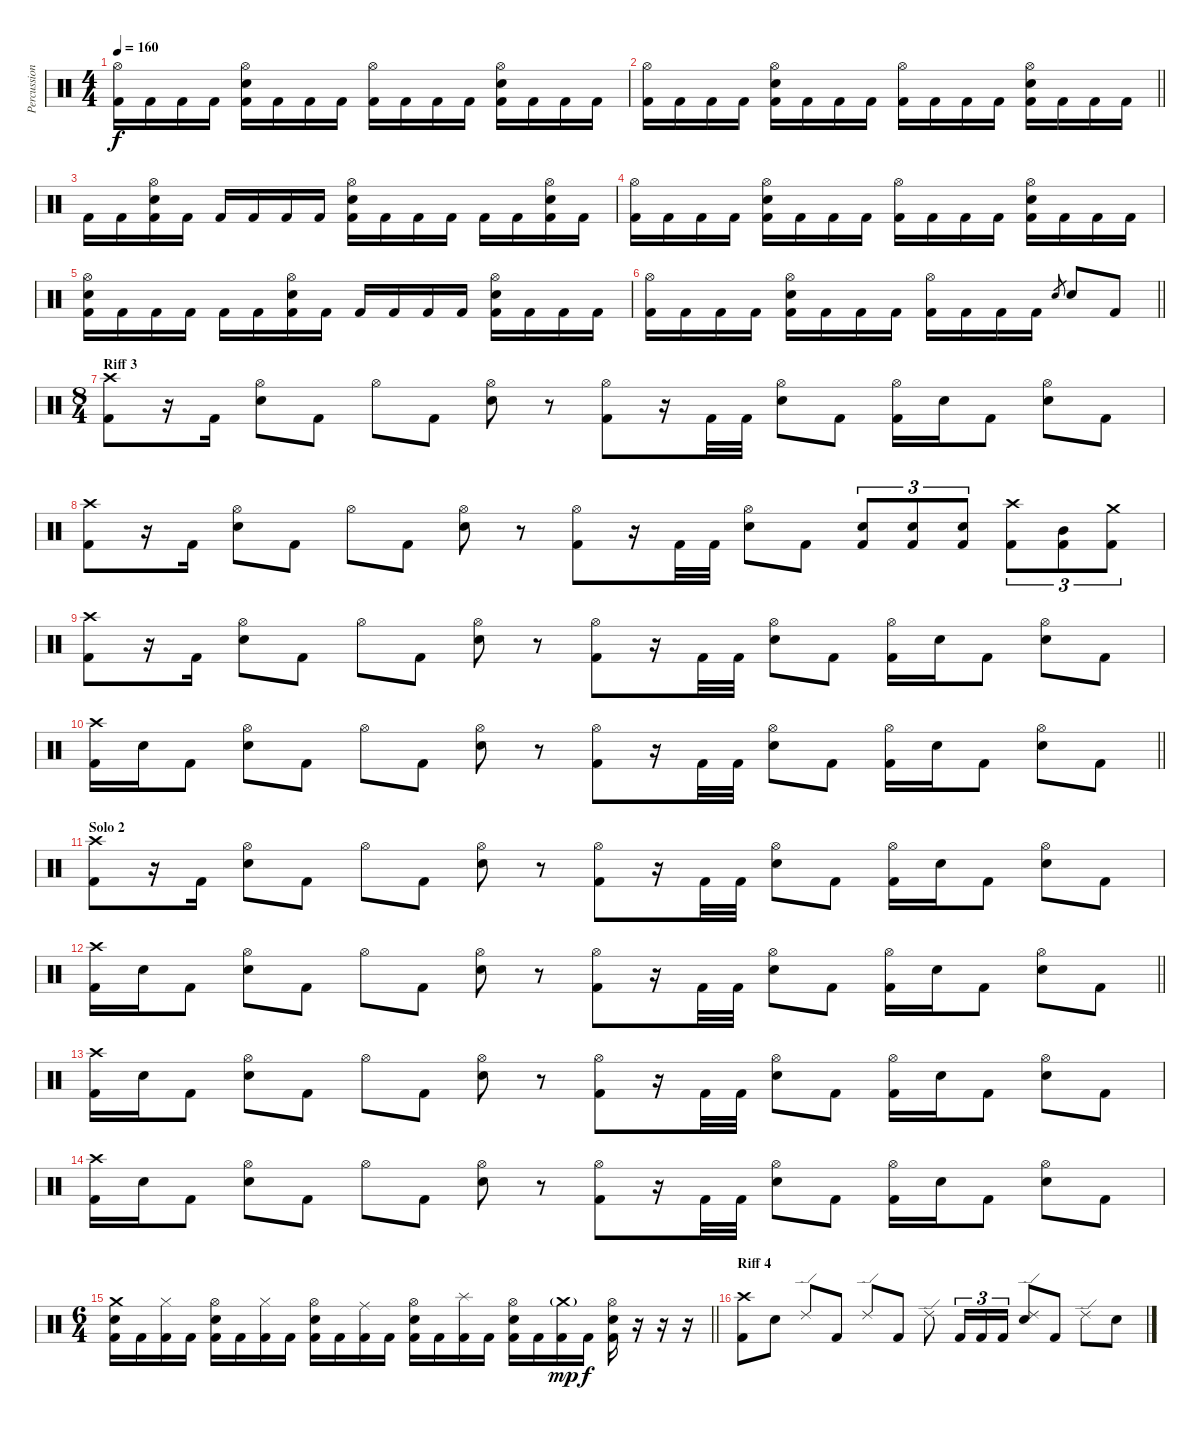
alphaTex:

\track ("Percussion" "Percussion") {instrument percussion}
\staff {score}
\articulation defaults
\ts (4 4)
\tempo 160
\clef neutral
\ks c
("Hi-Hat (open)" "Kick (hit) 2").16{dy f} "Kick (hit) 2".16 "Kick (hit) 2".16 "Kick (hit) 2".16 ("Hi-Hat (open)" "Snare (hit) 2" "Kick (hit) 2").16 "Kick (hit) 2".16 "Kick (hit) 2".16 "Kick (hit) 2".16 ("Hi-Hat (open)" "Kick (hit) 2").16 "Kick (hit) 2".16 "Kick (hit) 2".16 "Kick (hit) 2".16 ("Hi-Hat (open)" "Snare (hit) 2" "Kick (hit) 2").16 "Kick (hit) 2".16 "Kick (hit) 2".16 "Kick (hit) 2".16 |
\barLineRight lightlight
("Hi-Hat (open)" "Kick (hit) 2").16 "Kick (hit) 2".16 "Kick (hit) 2".16 "Kick (hit) 2".16 ("Hi-Hat (open)" "Snare (hit) 2" "Kick (hit) 2").16 "Kick (hit) 2".16 "Kick (hit) 2".16 "Kick (hit) 2".16 ("Hi-Hat (open)" "Kick (hit) 2").16 "Kick (hit) 2".16 "Kick (hit) 2".16 "Kick (hit) 2".16 ("Hi-Hat (open)" "Snare (hit) 2" "Kick (hit) 2").16 "Kick (hit) 2".16 "Kick (hit) 2".16 "Kick (hit) 2".16 |
"Kick (hit) 2".16 "Kick (hit) 2".16 ("Hi-Hat (open)" "Snare (hit) 2" "Kick (hit) 2").16 "Kick (hit) 2".16 "Kick (hit) 2".16 "Kick (hit) 2".16 "Kick (hit) 2".16 "Kick (hit) 2".16 ("Hi-Hat (open)" "Snare (hit) 2" "Kick (hit) 2").16 "Kick (hit) 2".16 "Kick (hit) 2".16 "Kick (hit) 2".16 "Kick (hit) 2".16 "Kick (hit) 2".16 ("Hi-Hat (open)" "Snare (hit) 2" "Kick (hit) 2").16 "Kick (hit) 2".16 |
("Hi-Hat (open)" "Kick (hit) 2").16 "Kick (hit) 2".16 "Kick (hit) 2".16 "Kick (hit) 2".16 ("Hi-Hat (open)" "Snare (hit) 2" "Kick (hit) 2").16 "Kick (hit) 2".16 "Kick (hit) 2".16 "Kick (hit) 2".16 ("Hi-Hat (open)" "Kick (hit) 2").16 "Kick (hit) 2".16 "Kick (hit) 2".16 "Kick (hit) 2".16 ("Hi-Hat (open)" "Snare (hit) 2" "Kick (hit) 2").16 "Kick (hit) 2".16 "Kick (hit) 2".16 "Kick (hit) 2".16 |
("Hi-Hat (open)" "Snare (hit) 2" "Kick (hit) 2").16 "Kick (hit) 2".16 "Kick (hit) 2".16 "Kick (hit) 2".16 "Kick (hit) 2".16 "Kick (hit) 2".16 ("Hi-Hat (open)" "Snare (hit) 2" "Kick (hit) 2").16 "Kick (hit) 2".16 "Kick (hit) 2".16 "Kick (hit) 2".16 "Kick (hit) 2".16 "Kick (hit) 2".16 ("Snare (hit) 2" "Hi-Hat (open)" "Kick (hit) 2").16 "Kick (hit) 2".16 "Kick (hit) 2".16 "Kick (hit) 2".16 |
\barLineRight lightlight
("Hi-Hat (open)" "Kick (hit) 2").16 "Kick (hit) 2".16 "Kick (hit) 2".16 "Kick (hit) 2".16 ("Hi-Hat (open)" "Snare (hit) 2" "Kick (hit) 2").16 "Kick (hit) 2".16 "Kick (hit) 2".16 "Kick (hit) 2".16 ("Hi-Hat (open)" "Kick (hit) 2").16 "Kick (hit) 2".16 "Kick (hit) 2".16 "Kick (hit) 2".16 "Snare (hit) 2".8{gr} "Snare (hit) 2".8 "Kick (hit) 2".8 |
\ts (8 4)
\section ("" "Riff 3")
("Kick (hit) 2" "Crash high (hit)").8 r.16 "Kick (hit) 2".16 ("Snare (hit) 2" "Hi-Hat (open)").8 "Kick (hit) 2".8 "Hi-Hat (open)".8 "Kick (hit) 2".8 ("Snare (hit) 2" "Hi-Hat (open)").8 r.8 ("Kick (hit) 2" "Hi-Hat (open)").8 r.16 "Kick (hit) 2".32 "Kick (hit) 2".32 ("Snare (hit) 2" "Hi-Hat (open)").8 "Kick (hit) 2".8 ("Kick (hit) 2" "Hi-Hat (open)").16 "Snare (hit) 2".16 "Kick (hit) 2".8 ("Snare (hit) 2" "Hi-Hat (open)").8 "Kick (hit) 2".8 |
("Kick (hit) 2" "Crash high (hit)").8 r.16 "Kick (hit) 2".16 ("Snare (hit) 2" "Hi-Hat (open)").8 "Kick (hit) 2".8 "Hi-Hat (open)".8 "Kick (hit) 2".8 ("Snare (hit) 2" "Hi-Hat (open)").8 r.8 ("Kick (hit) 2" "Hi-Hat (open)").8 r.16 "Kick (hit) 2".32 "Kick (hit) 2".32 ("Snare (hit) 2" "Hi-Hat (open)").8 "Kick (hit) 2".8 ("Snare (hit) 2" "Kick (hit) 2").8{tu (3 2)} ("Snare (hit) 2" "Kick (hit) 2").8{tu (3 2)} ("Snare (hit) 2" "Kick (hit) 2").8{tu (3 2)} ("Crash high (hit)" "Kick (hit) 2").8{tu (3 2)} ("Mid Tom (hit)" "Kick (hit) 2").8{tu (3 2)} ("Crash medium (hit)" "Kick (hit) 2").8{tu (3 2)} |
("Kick (hit) 2" "Crash high (hit)").8 r.16 "Kick (hit) 2".16 ("Snare (hit) 2" "Hi-Hat (open)").8 "Kick (hit) 2".8 "Hi-Hat (open)".8 "Kick (hit) 2".8 ("Snare (hit) 2" "Hi-Hat (open)").8 r.8 ("Kick (hit) 2" "Hi-Hat (open)").8 r.16 "Kick (hit) 2".32 "Kick (hit) 2".32 ("Snare (hit) 2" "Hi-Hat (open)").8 "Kick (hit) 2".8 ("Kick (hit) 2" "Hi-Hat (open)").16 "Snare (hit) 2".16 "Kick (hit) 2".8 ("Snare (hit) 2" "Hi-Hat (open)").8 "Kick (hit) 2".8 |
\barLineRight lightlight
("Kick (hit) 2" "Crash high (hit)").16 "Snare (hit) 2".16 "Kick (hit) 2".8 ("Snare (hit) 2" "Hi-Hat (open)").8 "Kick (hit) 2".8 "Hi-Hat (open)".8 "Kick (hit) 2".8 ("Snare (hit) 2" "Hi-Hat (open)").8 r.8 ("Kick (hit) 2" "Hi-Hat (open)").8 r.16 "Kick (hit) 2".32 "Kick (hit) 2".32 ("Snare (hit) 2" "Hi-Hat (open)").8 "Kick (hit) 2".8 ("Kick (hit) 2" "Hi-Hat (open)").16 "Snare (hit) 2".16 "Kick (hit) 2".8 ("Snare (hit) 2" "Hi-Hat (open)").8 "Kick (hit) 2".8 |
\section ("" "Solo 2")
("Kick (hit) 2" "Crash high (hit)").8 r.16 "Kick (hit) 2".16 ("Snare (hit) 2" "Hi-Hat (open)").8 "Kick (hit) 2".8 "Hi-Hat (open)".8 "Kick (hit) 2".8 ("Snare (hit) 2" "Hi-Hat (open)").8 r.8 ("Kick (hit) 2" "Hi-Hat (open)").8 r.16 "Kick (hit) 2".32 "Kick (hit) 2".32 ("Snare (hit) 2" "Hi-Hat (open)").8 "Kick (hit) 2".8 ("Kick (hit) 2" "Hi-Hat (open)").16 "Snare (hit) 2".16 "Kick (hit) 2".8 ("Snare (hit) 2" "Hi-Hat (open)").8 "Kick (hit) 2".8 |
\barLineRight lightlight
("Kick (hit) 2" "Crash high (hit)").16 "Snare (hit) 2".16 "Kick (hit) 2".8 ("Snare (hit) 2" "Hi-Hat (open)").8 "Kick (hit) 2".8 "Hi-Hat (open)".8 "Kick (hit) 2".8 ("Snare (hit) 2" "Hi-Hat (open)").8 r.8 ("Kick (hit) 2" "Hi-Hat (open)").8 r.16 "Kick (hit) 2".32 "Kick (hit) 2".32 ("Snare (hit) 2" "Hi-Hat (open)").8 "Kick (hit) 2".8 ("Kick (hit) 2" "Hi-Hat (open)").16 "Snare (hit) 2".16 "Kick (hit) 2".8 ("Snare (hit) 2" "Hi-Hat (open)").8 "Kick (hit) 2".8 |
("Kick (hit) 2" "Crash high (hit)").16 "Snare (hit) 2".16 "Kick (hit) 2".8 ("Snare (hit) 2" "Hi-Hat (open)").8 "Kick (hit) 2".8 "Hi-Hat (open)".8 "Kick (hit) 2".8 ("Snare (hit) 2" "Hi-Hat (open)").8 r.8 ("Kick (hit) 2" "Hi-Hat (open)").8 r.16 "Kick (hit) 2".32 "Kick (hit) 2".32 ("Snare (hit) 2" "Hi-Hat (open)").8 "Kick (hit) 2".8 ("Kick (hit) 2" "Hi-Hat (open)").16 "Snare (hit) 2".16 "Kick (hit) 2".8 ("Snare (hit) 2" "Hi-Hat (open)").8 "Kick (hit) 2".8 |
("Kick (hit) 2" "Crash high (hit)").16 "Snare (hit) 2".16 "Kick (hit) 2".8 ("Snare (hit) 2" "Hi-Hat (open)").8 "Kick (hit) 2".8 "Hi-Hat (open)".8 "Kick (hit) 2".8 ("Snare (hit) 2" "Hi-Hat (open)").8 r.8 ("Kick (hit) 2" "Hi-Hat (open)").8 r.16 "Kick (hit) 2".32 "Kick (hit) 2".32 ("Snare (hit) 2" "Hi-Hat (open)").8 "Kick (hit) 2".8 ("Kick (hit) 2" "Hi-Hat (open)").16 "Snare (hit) 2".16 "Kick (hit) 2".8 ("Snare (hit) 2" "Hi-Hat (open)").8 "Kick (hit) 2".8 |
\ts (6 4)
\barLineRight lightlight
("Snare (hit) 2" "Kick (hit) 2" "Crash medium (hit)").16 "Kick (hit) 2".16 ("Kick (hit) 2" "Hi-Hat (closed)").16 "Kick (hit) 2".16 ("Hi-Hat (open)" "Snare (hit) 2" "Kick (hit) 2").16 "Kick (hit) 2".16 ("Kick (hit) 2" "Hi-Hat (closed)").16 "Kick (hit) 2".16 ("Hi-Hat (open)" "Snare (hit) 2" "Kick (hit) 2").16 "Kick (hit) 2".16 ("Kick (hit) 2" "Ride (middle)").16 "Kick (hit) 2".16 ("Hi-Hat (open)" "Snare (hit) 2" "Kick (hit) 2").16 "Kick (hit) 2".16 ("Kick (hit) 2" "Splash (hit)").16 "Kick (hit) 2".16 ("Hi-Hat (open)" "Snare (hit) 2" "Kick (hit) 2").16 "Kick (hit) 2".16 ("Kick (hit) 2" "Crash medium (hit)"{g}).16{dy mp} "Kick (hit) 2".16{dy f} ("Snare (hit) 2" "Hi-Hat (open)" "Kick (hit) 2").16 r.16 r.16 r.16 |
\section ("" "Riff 4")
("Crash high (hit)" "Kick (hit) 2").8 "Snare (hit) 2".8 "Ride (edge) 2".8 "Kick (hit) 2".8 "Ride (edge) 2".8 "Kick (hit) 2".8 "Ride (edge) 2".8 "Kick (hit) 2".16{tu (3 2)} "Kick (hit) 2".16{tu (3 2)} "Kick (hit) 2".16{tu (3 2)} ("Ride (edge) 2" "Snare (hit) 2").8 "Kick (hit) 2".8 "Ride (edge) 2".8 "Snare (hit) 2".8
